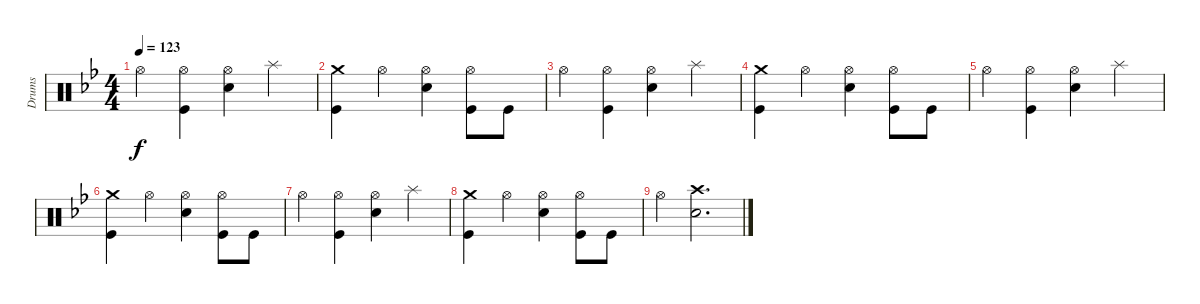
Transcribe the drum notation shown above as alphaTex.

\track ("Drums" "Drums") {instrument percussion}
\staff {score}
\articulation defaults
\ts (4 4)
\tempo 123
\clef neutral
\ks bb "Hi-Hat (open)".4{dy f}
("Hi-Hat (open)" "Kick (hit)").4 ("Hi-Hat (open)" "Snare (hit) 2").4 "Splash (hit)".4 |
("Crash medium (hit)" "Kick (hit)").4 "Hi-Hat (open)".4 ("Hi-Hat (open)" "Snare (hit) 2").4 ("Hi-Hat (open)" "Kick (hit)").8 "Kick (hit)".8 |
"Hi-Hat (open)".4 ("Hi-Hat (open)" "Kick (hit)").4 ("Hi-Hat (open)" "Snare (hit) 2").4 "Splash (hit)".4 |
("Crash medium (hit)" "Kick (hit)").4 "Hi-Hat (open)".4 ("Hi-Hat (open)" "Snare (hit) 2").4 ("Hi-Hat (open)" "Kick (hit)").8 "Kick (hit)".8 |
"Hi-Hat (open)".4 ("Hi-Hat (open)" "Kick (hit)").4 ("Hi-Hat (open)" "Snare (hit) 2").4 "Splash (hit)".4 |
("Crash medium (hit)" "Kick (hit)").4 "Hi-Hat (open)".4 ("Hi-Hat (open)" "Snare (hit) 2").4 ("Hi-Hat (open)" "Kick (hit)").8 "Kick (hit)".8 |
"Hi-Hat (open)".4 ("Hi-Hat (open)" "Kick (hit)").4 ("Hi-Hat (open)" "Snare (hit) 2").4 "Splash (hit)".4 |
("Crash medium (hit)" "Kick (hit)").4 "Hi-Hat (open)".4 ("Hi-Hat (open)" "Snare (hit) 2").4 ("Hi-Hat (open)" "Kick (hit)").8 "Kick (hit)".8 |
"Hi-Hat (open)".4 ("Crash high (hit)" "Snare (hit) 2").2{d}
